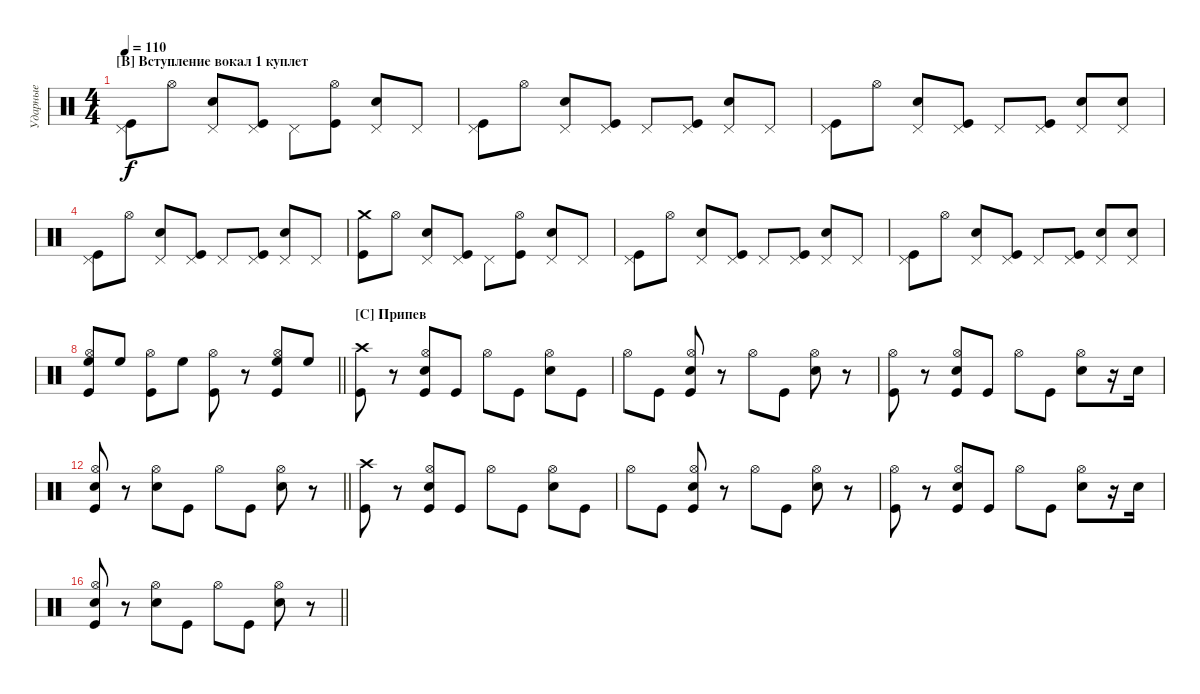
\bracketExtendMode groupsimilarinstruments
\multiTrackTrackNamePolicy hidden
\firstSystemTrackNameMode fullname
\otherSystemsTrackNameMode fullname
\otherSystemsTrackNameOrientation horizontal
\defaultBarNumberDisplay FirstOfSystem
\track ("Ударные" "Drums") {multiBarRest instrument percussion}
\staff {score}
\articulation defaults
\ts (4 4)
\section ("B" "Вступление вокал 1 куплет")
\tempo 110
\clef neutral
\ks c
("Pedal Hi-Hat (hit)" "Kick (hit)").8{dy f} "Hi-Hat (open)".8 ("Pedal Hi-Hat (hit)" "Snare (hit) 2").8 ("Pedal Hi-Hat (hit)" "Kick (hit)").8 "Pedal Hi-Hat (hit)".8 ("Hi-Hat (open)" "Kick (hit)").8 ("Pedal Hi-Hat (hit)" "Snare (hit) 2").8 "Pedal Hi-Hat (hit)".8 |
("Pedal Hi-Hat (hit)" "Kick (hit)").8 "Hi-Hat (open)".8 ("Pedal Hi-Hat (hit)" "Snare (hit) 2").8 ("Pedal Hi-Hat (hit)" "Kick (hit)").8 "Pedal Hi-Hat (hit)".8 ("Pedal Hi-Hat (hit)" "Kick (hit)").8 ("Pedal Hi-Hat (hit)" "Snare (hit) 2").8 "Pedal Hi-Hat (hit)".8 |
("Pedal Hi-Hat (hit)" "Kick (hit)").8 "Hi-Hat (open)".8 ("Pedal Hi-Hat (hit)" "Snare (hit) 2").8 ("Pedal Hi-Hat (hit)" "Kick (hit)").8 "Pedal Hi-Hat (hit)".8 ("Pedal Hi-Hat (hit)" "Kick (hit)").8 ("Pedal Hi-Hat (hit)" "Snare (hit) 2").8 ("Pedal Hi-Hat (hit)" "Snare (hit) 2").8 |
("Pedal Hi-Hat (hit)" "Kick (hit)").8 "Hi-Hat (open)".8 ("Pedal Hi-Hat (hit)" "Snare (hit) 2").8 ("Pedal Hi-Hat (hit)" "Kick (hit)").8 "Pedal Hi-Hat (hit)".8 ("Pedal Hi-Hat (hit)" "Kick (hit)").8 ("Pedal Hi-Hat (hit)" "Snare (hit) 2").8 "Pedal Hi-Hat (hit)".8 |
("Crash medium (hit)" "Kick (hit)").8 "Hi-Hat (open)".8 ("Pedal Hi-Hat (hit)" "Snare (hit) 2").8 ("Pedal Hi-Hat (hit)" "Kick (hit)").8 "Pedal Hi-Hat (hit)".8 ("Hi-Hat (open)" "Kick (hit)").8 ("Pedal Hi-Hat (hit)" "Snare (hit) 2").8 "Pedal Hi-Hat (hit)".8 |
("Pedal Hi-Hat (hit)" "Kick (hit)").8 "Hi-Hat (open)".8 ("Pedal Hi-Hat (hit)" "Snare (hit) 2").8 ("Pedal Hi-Hat (hit)" "Kick (hit)").8 "Pedal Hi-Hat (hit)".8 ("Pedal Hi-Hat (hit)" "Kick (hit)").8 ("Pedal Hi-Hat (hit)" "Snare (hit) 2").8 "Pedal Hi-Hat (hit)".8 |
("Pedal Hi-Hat (hit)" "Kick (hit)").8 "Hi-Hat (open)".8 ("Pedal Hi-Hat (hit)" "Snare (hit) 2").8 ("Pedal Hi-Hat (hit)" "Kick (hit)").8 "Pedal Hi-Hat (hit)".8 ("Pedal Hi-Hat (hit)" "Kick (hit)").8 ("Pedal Hi-Hat (hit)" "Snare (hit) 2").8 ("Pedal Hi-Hat (hit)" "Snare (hit) 2").8 |
\barLineRight lightlight
("Hi-Hat (open)" "High Floor Tom (hit)" "Kick (hit)").8 "High Floor Tom (hit)".8 ("Hi-Hat (open)" "Kick (hit)").8 "High Floor Tom (hit)".8 ("Hi-Hat (open)" "Kick (hit)").8 r.8 ("Hi-Hat (open)" "High Floor Tom (hit)" "Kick (hit)").8 "High Floor Tom (hit)".8 |
\section ("C" "Припев")
("Crash high (hit)" "Kick (hit)").8 r.8 ("Hi-Hat (open)" "Snare (hit) 2" "Kick (hit)").8 "Kick (hit)".8 "Hi-Hat (open)".8 "Kick (hit)".8 ("Hi-Hat (open)" "Snare (hit) 2").8 "Kick (hit)".8 |
"Hi-Hat (open)".8 "Kick (hit)".8 ("Hi-Hat (open)" "Snare (hit) 2" "Kick (hit)").8 r.8 "Hi-Hat (open)".8 "Kick (hit)".8 ("Hi-Hat (open)" "Snare (hit) 2").8 r.8 |
("Hi-Hat (open)" "Kick (hit)").8 r.8 ("Hi-Hat (open)" "Snare (hit) 2" "Kick (hit)").8 "Kick (hit)".8 "Hi-Hat (open)".8 "Kick (hit)".8 ("Hi-Hat (open)" "Snare (hit) 2").8 r.16 "Snare (hit) 2".16 |
\barLineRight lightlight
("Hi-Hat (open)" "Snare (hit) 2" "Kick (hit)").8 r.8 ("Hi-Hat (open)" "Snare (hit) 2").8 "Kick (hit)".8 "Hi-Hat (open)".8 "Kick (hit)".8 ("Hi-Hat (open)" "Snare (hit) 2").8 r.8 |
("Crash high (hit)" "Kick (hit)").8 r.8 ("Hi-Hat (open)" "Snare (hit) 2" "Kick (hit)").8 "Kick (hit)".8 "Hi-Hat (open)".8 "Kick (hit)".8 ("Hi-Hat (open)" "Snare (hit) 2").8 "Kick (hit)".8 |
"Hi-Hat (open)".8 "Kick (hit)".8 ("Hi-Hat (open)" "Snare (hit) 2" "Kick (hit)").8 r.8 "Hi-Hat (open)".8 "Kick (hit)".8 ("Hi-Hat (open)" "Snare (hit) 2").8 r.8 |
("Hi-Hat (open)" "Kick (hit)").8 r.8 ("Hi-Hat (open)" "Snare (hit) 2" "Kick (hit)").8 "Kick (hit)".8 "Hi-Hat (open)".8 "Kick (hit)".8 ("Hi-Hat (open)" "Snare (hit) 2").8 r.16 "Snare (hit) 2".16 |
\barLineRight lightlight
("Hi-Hat (open)" "Snare (hit) 2" "Kick (hit)").8 r.8 ("Hi-Hat (open)" "Snare (hit) 2").8 "Kick (hit)".8 "Hi-Hat (open)".8 "Kick (hit)".8 ("Hi-Hat (open)" "Snare (hit) 2").8 r.8
